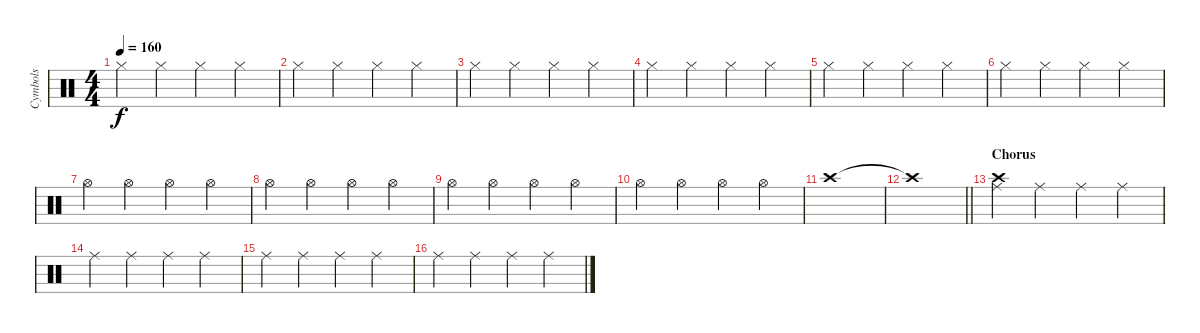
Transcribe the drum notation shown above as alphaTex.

\track ("Cymbols" "Cymbols") {instrument percussion}
\staff {score}
\articulation defaults
\ts (4 4)
\tempo 160
\clef neutral
\ks c "Hi-Hat (closed)".4{dy f} "Hi-Hat (closed)".4 "Hi-Hat (closed)".4 "Hi-Hat (closed)".4
|
"Hi-Hat (closed)".4 "Hi-Hat (closed)".4 "Hi-Hat (closed)".4 "Hi-Hat (closed)".4 |
"Hi-Hat (closed)".4 "Hi-Hat (closed)".4 "Hi-Hat (closed)".4 "Hi-Hat (closed)".4 |
"Hi-Hat (closed)".4 "Hi-Hat (closed)".4 "Hi-Hat (closed)".4 "Hi-Hat (closed)".4 |
"Hi-Hat (closed)".4 "Hi-Hat (closed)".4 "Hi-Hat (closed)".4 "Hi-Hat (closed)".4 |
"Hi-Hat (closed)".4 "Hi-Hat (closed)".4 "Hi-Hat (closed)".4 "Hi-Hat (closed)".4 |
"Hi-Hat (open)".4 "Hi-Hat (open)".4 "Hi-Hat (open)".4 "Hi-Hat (open)".4 |
"Hi-Hat (open)".4 "Hi-Hat (open)".4 "Hi-Hat (open)".4 "Hi-Hat (open)".4 |
"Hi-Hat (open)".4 "Hi-Hat (open)".4 "Hi-Hat (open)".4 "Hi-Hat (open)".4 |
"Hi-Hat (open)".4 "Hi-Hat (open)".4 "Hi-Hat (open)".4 "Hi-Hat (open)".4 |
"Crash high (hit)".1 |
\barLineRight lightlight "Crash high (hit)"{t}.1
|
\section ("" "Chorus")
("Crash high (hit)" "Ride (middle)").4 "Ride (middle)".4 "Ride (middle)".4 "Ride (middle)".4 |
"Ride (middle)".4 "Ride (middle)".4 "Ride (middle)".4 "Ride (middle)".4 |
"Ride (middle)".4 "Ride (middle)".4 "Ride (middle)".4 "Ride (middle)".4 |
"Ride (middle)".4 "Ride (middle)".4 "Ride (middle)".4 "Ride (middle)".4
